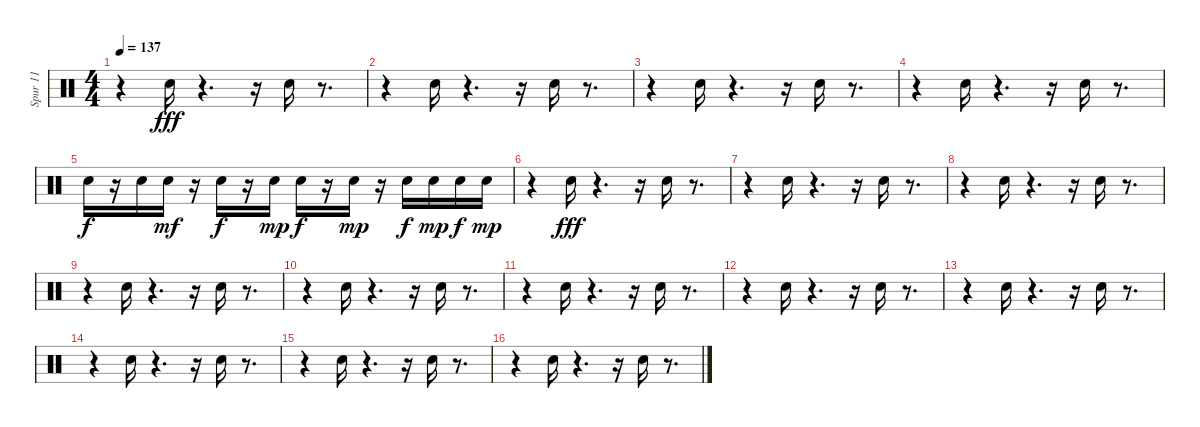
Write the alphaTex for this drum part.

\track ("Spur 11" "Spur 11") {instrument percussion}
\staff {score}
\articulation defaults
\ts (4 4)
\tempo 137
\clef neutral
\ks c
r.4{dy fff} "Snare (hit) 2".16 r.4{d} r.16 "Snare (hit) 2".16 r.8{d} |
r.4 "Snare (hit) 2".16 r.4{d} r.16 "Snare (hit) 2".16 r.8{d} |
r.4 "Snare (hit) 2".16 r.4{d} r.16 "Snare (hit) 2".16 r.8{d} |
r.4 "Snare (hit) 2".16 r.4{d} r.16 "Snare (hit) 2".16 r.8{d} |
"Electric Snare (hit)".16{dy f} r.16 "Electric Snare (hit)".16 "Electric Snare (hit)".16{dy mf} r.16 "Electric Snare (hit)".16{dy f} r.16 "Electric Snare (hit)".16{dy mp} "Electric Snare (hit)".16{dy f} r.16 "Electric Snare (hit)".16{dy mp} r.16 "Electric Snare (hit)".16{dy f} "Electric Snare (hit)".16{dy mp} "Electric Snare (hit)".16{dy f} "Electric Snare (hit)".16{dy mp} |
r.4 "Snare (hit) 2".16{dy fff} r.4{d} r.16 "Snare (hit) 2".16 r.8{d} |
r.4 "Snare (hit) 2".16 r.4{d} r.16 "Snare (hit) 2".16 r.8{d} |
r.4 "Snare (hit) 2".16 r.4{d} r.16 "Snare (hit) 2".16 r.8{d} |
r.4 "Snare (hit) 2".16 r.4{d} r.16 "Snare (hit) 2".16 r.8{d} |
r.4 "Snare (hit) 2".16 r.4{d} r.16 "Snare (hit) 2".16 r.8{d} |
r.4 "Snare (hit) 2".16 r.4{d} r.16 "Snare (hit) 2".16 r.8{d} |
r.4 "Snare (hit) 2".16 r.4{d} r.16 "Snare (hit) 2".16 r.8{d} |
r.4 "Snare (hit) 2".16 r.4{d} r.16 "Snare (hit) 2".16 r.8{d} |
r.4 "Snare (hit) 2".16 r.4{d} r.16 "Snare (hit) 2".16 r.8{d} |
r.4 "Snare (hit) 2".16 r.4{d} r.16 "Snare (hit) 2".16 r.8{d} |
r.4 "Snare (hit) 2".16 r.4{d} r.16 "Snare (hit) 2".16 r.8{d}
